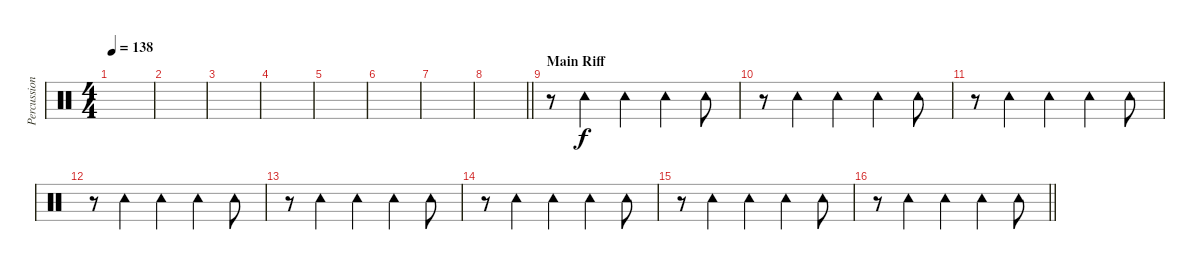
\track ("Percussions" "Percussion") {instrument percussion}
\staff
\articulation defaults
\ts (4 4)
\tempo 138
\clef neutral
\ks c
|
|
|
|
|
|
|
\barLineRight lightlight
|
\section ("" "Main Riff")
r.8 "Tambourine (hit)".4 "Tambourine (hit)".4 "Tambourine (hit)".4 "Tambourine (hit)".8 |
r.8 "Tambourine (hit)".4 "Tambourine (hit)".4 "Tambourine (hit)".4 "Tambourine (hit)".8 |
r.8 "Tambourine (hit)".4 "Tambourine (hit)".4 "Tambourine (hit)".4 "Tambourine (hit)".8 |
r.8 "Tambourine (hit)".4 "Tambourine (hit)".4 "Tambourine (hit)".4 "Tambourine (hit)".8 |
r.8 "Tambourine (hit)".4 "Tambourine (hit)".4 "Tambourine (hit)".4 "Tambourine (hit)".8 |
r.8 "Tambourine (hit)".4 "Tambourine (hit)".4 "Tambourine (hit)".4 "Tambourine (hit)".8 |
r.8 "Tambourine (hit)".4 "Tambourine (hit)".4 "Tambourine (hit)".4 "Tambourine (hit)".8 |
\barLineRight lightlight
r.8 "Tambourine (hit)".4 "Tambourine (hit)".4 "Tambourine (hit)".4 "Tambourine (hit)".8
